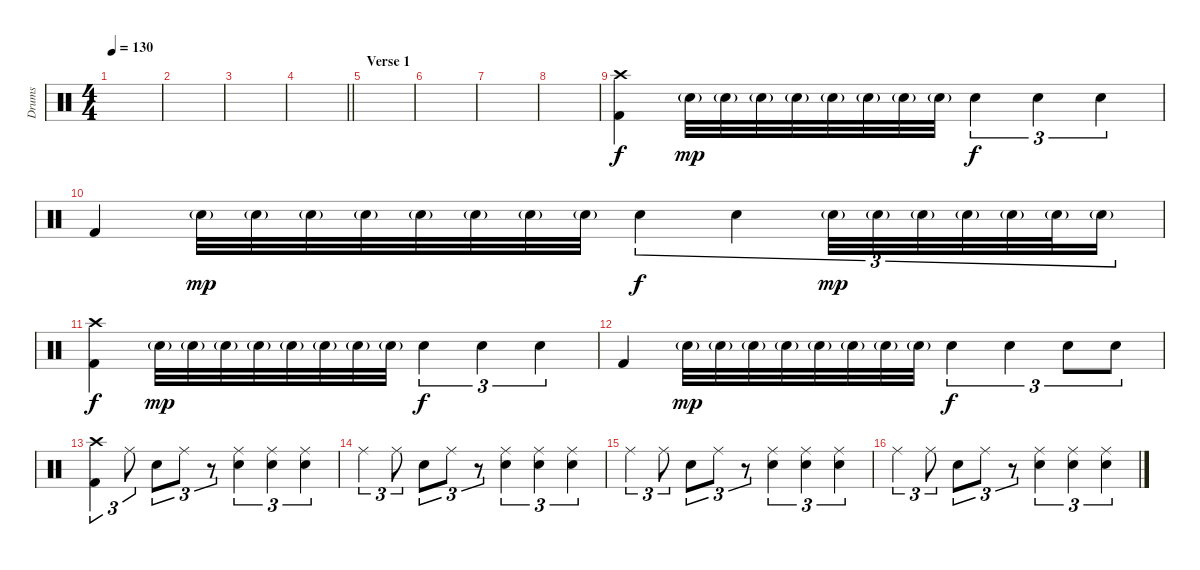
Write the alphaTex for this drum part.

\track ("Drums" "Drums") {instrument percussion}
\staff {score}
\articulation defaults
\ts (4 4)
\tempo 130
\clef neutral
\ks c
|
|
|
\barLineRight lightlight
|
\section ("" "Verse 1")
|
|
|
|
("Crash high (hit)" "Kick (hit) 2").4 "Snare (hit) 2"{g}.32{dy mp} "Snare (hit) 2"{g}.32 "Snare (hit) 2"{g}.32 "Snare (hit) 2"{g}.32 "Snare (hit) 2"{g}.32 "Snare (hit) 2"{g}.32 "Snare (hit) 2"{g}.32 "Snare (hit) 2"{g}.32 "Snare (hit) 2".4{tu (3 2) dy f} "Snare (hit) 2".4{tu (3 2)} "Snare (hit) 2".4{tu (3 2)} |
"Kick (hit) 2".4 "Snare (hit) 2"{g}.32{dy mp} "Snare (hit) 2"{g}.32 "Snare (hit) 2"{g}.32 "Snare (hit) 2"{g}.32 "Snare (hit) 2"{g}.32 "Snare (hit) 2"{g}.32 "Snare (hit) 2"{g}.32 "Snare (hit) 2"{g}.32 "Snare (hit) 2".4{tu (3 2) dy f} "Snare (hit) 2".4{tu (3 2)} "Snare (hit) 2"{g}.32{tu (3 2) dy mp} "Snare (hit) 2"{g}.32{tu (3 2)} "Snare (hit) 2"{g}.32{tu (3 2)} "Snare (hit) 2"{g}.32{tu (3 2)} "Snare (hit) 2"{g}.32{tu (3 2)} "Snare (hit) 2"{g}.32{tu (3 2)} "Snare (hit) 2"{g}.16{tu (3 2)} |
("Crash high (hit)" "Kick (hit) 2").4{dy f} "Snare (hit) 2"{g}.32{dy mp} "Snare (hit) 2"{g}.32 "Snare (hit) 2"{g}.32 "Snare (hit) 2"{g}.32 "Snare (hit) 2"{g}.32 "Snare (hit) 2"{g}.32 "Snare (hit) 2"{g}.32 "Snare (hit) 2"{g}.32 "Snare (hit) 2".4{tu (3 2) dy f} "Snare (hit) 2".4{tu (3 2)} "Snare (hit) 2".4{tu (3 2)} |
"Kick (hit) 2".4 "Snare (hit) 2"{g}.32{dy mp} "Snare (hit) 2"{g}.32 "Snare (hit) 2"{g}.32 "Snare (hit) 2"{g}.32 "Snare (hit) 2"{g}.32 "Snare (hit) 2"{g}.32 "Snare (hit) 2"{g}.32 "Snare (hit) 2"{g}.32 "Snare (hit) 2".4{tu (3 2) dy f} "Snare (hit) 2".4{tu (3 2)} "Snare (hit) 2".8{tu (3 2)} "Snare (hit) 2".8{tu (3 2)} |
("Crash high (hit)" "Kick (hit) 2").4{tu (3 2)} "Ride (middle)".8{tu (3 2)} "Electric Snare (hit)".8{tu (3 2)} "Ride (middle)".8{tu (3 2)} r.8{tu (3 2)} ("Ride (middle)" "Electric Snare (hit)").4{tu (3 2)} ("Ride (middle)" "Electric Snare (hit)").4{tu (3 2)} ("Ride (middle)" "Electric Snare (hit)").4{tu (3 2)} |
"Ride (middle)".4{tu (3 2)} "Ride (middle)".8{tu (3 2)} "Electric Snare (hit)".8{tu (3 2)} "Ride (middle)".8{tu (3 2)} r.8{tu (3 2)} ("Ride (middle)" "Electric Snare (hit)").4{tu (3 2)} ("Ride (middle)" "Electric Snare (hit)").4{tu (3 2)} ("Ride (middle)" "Electric Snare (hit)").4{tu (3 2)} |
"Ride (middle)".4{tu (3 2)} "Ride (middle)".8{tu (3 2)} "Electric Snare (hit)".8{tu (3 2)} "Ride (middle)".8{tu (3 2)} r.8{tu (3 2)} ("Ride (middle)" "Electric Snare (hit)").4{tu (3 2)} ("Ride (middle)" "Electric Snare (hit)").4{tu (3 2)} ("Ride (middle)" "Electric Snare (hit)").4{tu (3 2)} |
"Ride (middle)".4{tu (3 2)} "Ride (middle)".8{tu (3 2)} "Electric Snare (hit)".8{tu (3 2)} "Ride (middle)".8{tu (3 2)} r.8{tu (3 2)} ("Ride (middle)" "Electric Snare (hit)").4{tu (3 2)} ("Ride (middle)" "Electric Snare (hit)").4{tu (3 2)} ("Ride (middle)" "Electric Snare (hit)").4{tu (3 2)}
